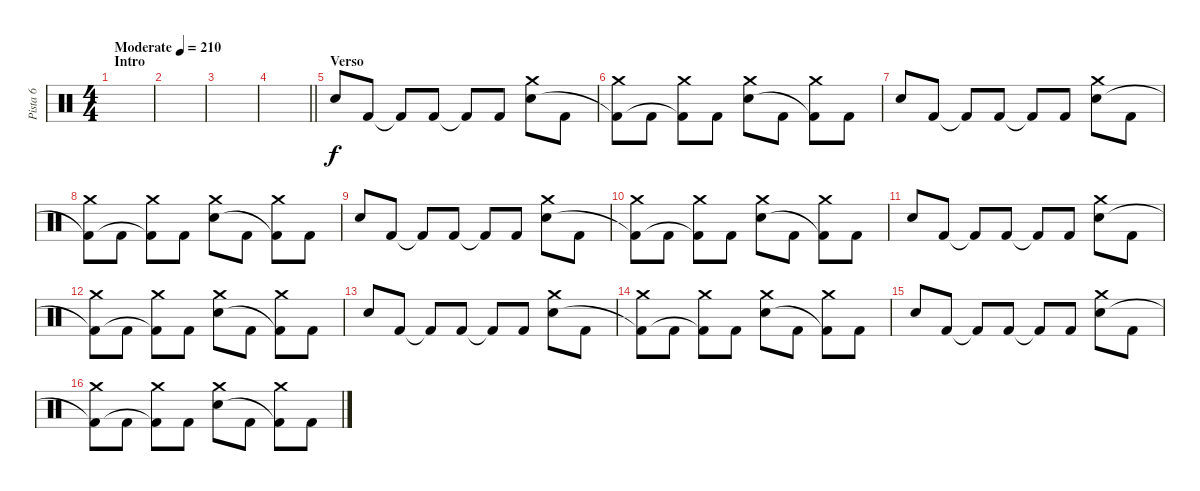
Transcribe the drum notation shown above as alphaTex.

\track ("Pista 6" "Pista 6") {instrument percussion}
\staff {score}
\articulation defaults
\ts (4 4)
\section ("" "Intro")
\tempo (210 "Moderate")
\clef neutral
\ks c
|
|
|
\barLineRight lightlight
|
\section ("" "Verso")
"Electric Snare (hit)".8 "Kick (hit) 2".8 "Kick (hit) 2"{t}.8 "Kick (hit) 2".8 "Kick (hit) 2"{t}.8 "Kick (hit) 2".8 ("Crash medium (hit)" "Electric Snare (hit)").8 "Kick (hit) 2".8 |
("Crash medium (hit)" "Kick (hit) 2"{t}).8 "Kick (hit) 2".8 ("Crash medium (hit)" "Kick (hit) 2"{t}).8 "Kick (hit) 2".8 ("Crash medium (hit)" "Electric Snare (hit)").8 "Kick (hit) 2".8 ("Crash medium (hit)" "Kick (hit) 2"{t}).8 "Kick (hit) 2".8 |
"Electric Snare (hit)".8 "Kick (hit) 2".8 "Kick (hit) 2"{t}.8 "Kick (hit) 2".8 "Kick (hit) 2"{t}.8 "Kick (hit) 2".8 ("Crash medium (hit)" "Electric Snare (hit)").8 "Kick (hit) 2".8 |
("Crash medium (hit)" "Kick (hit) 2"{t}).8 "Kick (hit) 2".8 ("Crash medium (hit)" "Kick (hit) 2"{t}).8 "Kick (hit) 2".8 ("Crash medium (hit)" "Electric Snare (hit)").8 "Kick (hit) 2".8 ("Crash medium (hit)" "Kick (hit) 2"{t}).8 "Kick (hit) 2".8 |
"Electric Snare (hit)".8 "Kick (hit) 2".8 "Kick (hit) 2"{t}.8 "Kick (hit) 2".8 "Kick (hit) 2"{t}.8 "Kick (hit) 2".8 ("Crash medium (hit)" "Electric Snare (hit)").8 "Kick (hit) 2".8 |
("Crash medium (hit)" "Kick (hit) 2"{t}).8 "Kick (hit) 2".8 ("Crash medium (hit)" "Kick (hit) 2"{t}).8 "Kick (hit) 2".8 ("Crash medium (hit)" "Electric Snare (hit)").8 "Kick (hit) 2".8 ("Crash medium (hit)" "Kick (hit) 2"{t}).8 "Kick (hit) 2".8 |
"Electric Snare (hit)".8 "Kick (hit) 2".8 "Kick (hit) 2"{t}.8 "Kick (hit) 2".8 "Kick (hit) 2"{t}.8 "Kick (hit) 2".8 ("Crash medium (hit)" "Electric Snare (hit)").8 "Kick (hit) 2".8 |
("Crash medium (hit)" "Kick (hit) 2"{t}).8 "Kick (hit) 2".8 ("Crash medium (hit)" "Kick (hit) 2"{t}).8 "Kick (hit) 2".8 ("Crash medium (hit)" "Electric Snare (hit)").8 "Kick (hit) 2".8 ("Crash medium (hit)" "Kick (hit) 2"{t}).8 "Kick (hit) 2".8 |
"Electric Snare (hit)".8 "Kick (hit) 2".8 "Kick (hit) 2"{t}.8 "Kick (hit) 2".8 "Kick (hit) 2"{t}.8 "Kick (hit) 2".8 ("Crash medium (hit)" "Electric Snare (hit)").8 "Kick (hit) 2".8 |
("Crash medium (hit)" "Kick (hit) 2"{t}).8 "Kick (hit) 2".8 ("Crash medium (hit)" "Kick (hit) 2"{t}).8 "Kick (hit) 2".8 ("Crash medium (hit)" "Electric Snare (hit)").8 "Kick (hit) 2".8 ("Crash medium (hit)" "Kick (hit) 2"{t}).8 "Kick (hit) 2".8 |
"Electric Snare (hit)".8 "Kick (hit) 2".8 "Kick (hit) 2"{t}.8 "Kick (hit) 2".8 "Kick (hit) 2"{t}.8 "Kick (hit) 2".8 ("Crash medium (hit)" "Electric Snare (hit)").8 "Kick (hit) 2".8 |
("Crash medium (hit)" "Kick (hit) 2"{t}).8 "Kick (hit) 2".8 ("Crash medium (hit)" "Kick (hit) 2"{t}).8 "Kick (hit) 2".8 ("Crash medium (hit)" "Electric Snare (hit)").8 "Kick (hit) 2".8 ("Crash medium (hit)" "Kick (hit) 2"{t}).8 "Kick (hit) 2".8
